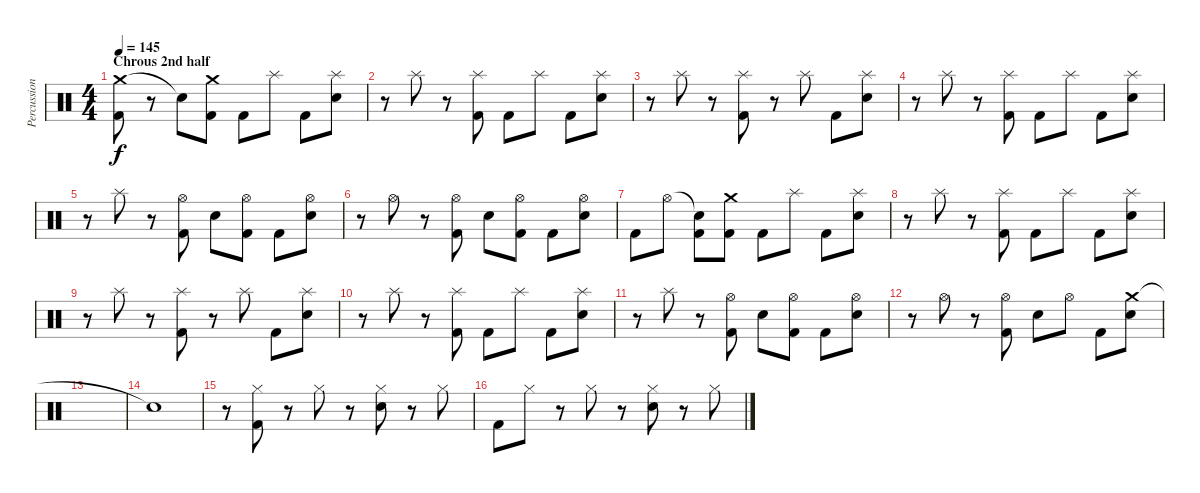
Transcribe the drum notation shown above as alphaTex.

\track ("Percussion" "Percussion") {instrument percussion}
\staff {score}
\articulation defaults
\ts (4 4)
\section ("" "Chrous 2nd half")
\tempo 145
\clef neutral
\ks c
("Crash medium (hit)" "Kick (hit) 2").8{dy f} r.8 "Snare (hit)"{t}.8 ("Crash medium (hit)" "Kick (hit) 2").8 "Kick (hit) 2".8 "Splash (hit)".8 "Kick (hit) 2".8 ("Splash (hit)" "Electric Snare (hit)").8 |
r.8 "Splash (hit)".8 r.8 ("Splash (hit)" "Kick (hit) 2").8 "Kick (hit) 2".8 "Splash (hit)".8 "Kick (hit) 2".8 ("Splash (hit)" "Electric Snare (hit)").8 |
r.8 "Splash (hit)".8 r.8 ("Splash (hit)" "Kick (hit) 2").8 r.8 "Splash (hit)".8 "Kick (hit) 2".8 ("Splash (hit)" "Electric Snare (hit)").8 |
r.8 "Splash (hit)".8 r.8 ("Splash (hit)" "Kick (hit) 2").8 "Kick (hit) 2".8 "Splash (hit)".8 "Kick (hit) 2".8 ("Splash (hit)" "Electric Snare (hit)").8 |
r.8 "Splash (hit)".8 r.8 ("Hi-Hat (open)" "Kick (hit) 2").8 "Electric Snare (hit)".8 ("Hi-Hat (open)" "Kick (hit) 2").8 "Kick (hit) 2".8 ("Hi-Hat (open)" "Electric Snare (hit)").8 |
r.8 "Hi-Hat (open)".8 r.8 ("Hi-Hat (open)" "Kick (hit) 2").8 "Electric Snare (hit)".8 ("Hi-Hat (open)" "Kick (hit) 2").8 "Kick (hit) 2".8 ("Hi-Hat (open)" "Electric Snare (hit)").8 |
"Kick (hit) 2".8 "Hi-Hat (open)".8 ("Snare (hit)"{t} "Kick (hit) 2").8 ("Crash medium (hit)" "Kick (hit) 2").8 "Kick (hit) 2".8 "Splash (hit)".8 "Kick (hit) 2".8 ("Splash (hit)" "Electric Snare (hit)").8 |
r.8 "Splash (hit)".8 r.8 ("Splash (hit)" "Kick (hit) 2").8 "Kick (hit) 2".8 "Splash (hit)".8 "Kick (hit) 2".8 ("Splash (hit)" "Electric Snare (hit)").8 |
r.8 "Splash (hit)".8 r.8 ("Splash (hit)" "Kick (hit) 2").8 r.8 "Splash (hit)".8 "Kick (hit) 2".8 ("Splash (hit)" "Electric Snare (hit)").8 |
r.8 "Splash (hit)".8 r.8 ("Splash (hit)" "Kick (hit) 2").8 "Kick (hit) 2".8 "Splash (hit)".8 "Kick (hit) 2".8 ("Splash (hit)" "Electric Snare (hit)").8 |
r.8 "Splash (hit)".8 r.8 ("Hi-Hat (open)" "Kick (hit) 2").8 "Electric Snare (hit)".8 ("Hi-Hat (open)" "Kick (hit) 2").8 "Kick (hit) 2".8 ("Hi-Hat (open)" "Electric Snare (hit)").8 |
r.8 "Hi-Hat (open)".8 r.8 ("Hi-Hat (open)" "Kick (hit) 2").8 "Electric Snare (hit)".8 "Hi-Hat (open)".8 "Kick (hit) 2".8 ("Crash medium (hit)" "Electric Snare (hit)").8 |
|
"Snare (hit)"{t}.1 |
r.8 ("Hi-Hat (closed)" "Kick (hit) 2").8 r.8 "Hi-Hat (closed)".8 r.8 ("Hi-Hat (closed)" "Electric Snare (hit)").8 r.8 "Hi-Hat (closed)".8 |
"Kick (hit) 2".8 "Hi-Hat (closed)".8 r.8 "Hi-Hat (closed)".8 r.8 ("Hi-Hat (closed)" "Electric Snare (hit)").8 r.8 "Hi-Hat (closed)".8
